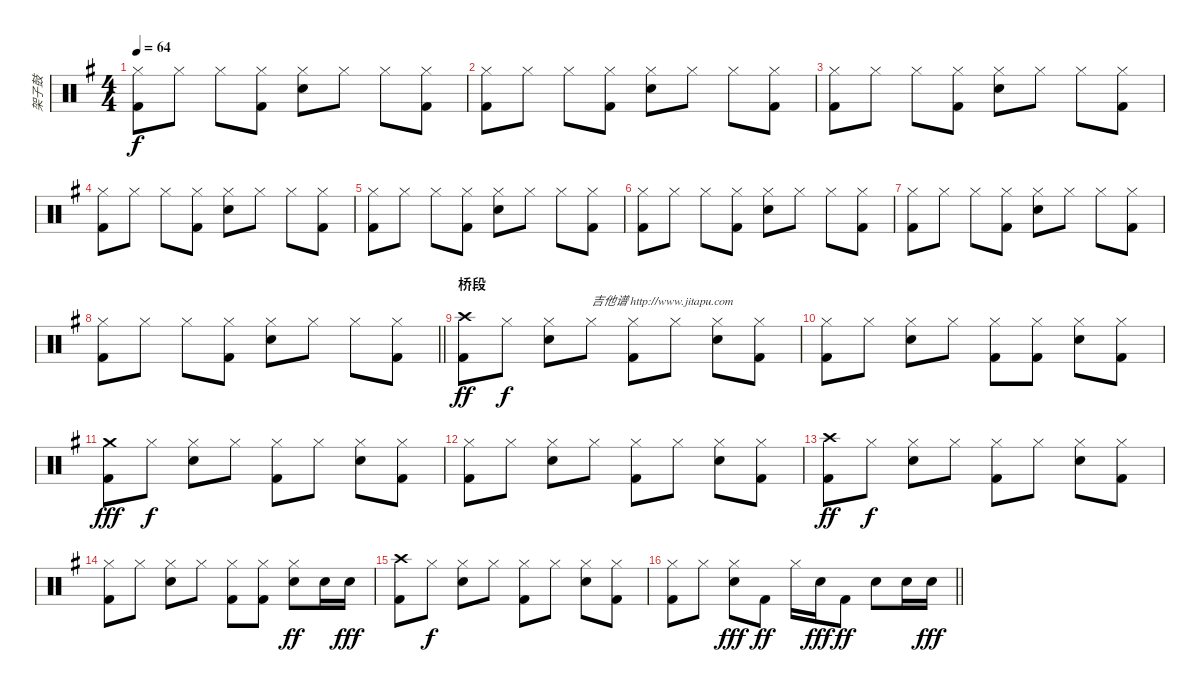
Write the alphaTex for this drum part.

\track ("架子鼓" "架子鼓") {instrument percussion}
\staff {score}
\articulation defaults
\ts (4 4)
\tempo 64
\clef neutral
\ks g
("Hi-Hat (closed)" "Kick (hit) 2").8{dy f} "Hi-Hat (closed)".8 "Hi-Hat (closed)".8 ("Hi-Hat (closed)" "Kick (hit) 2").8 ("Hi-Hat (closed)" "Electric Snare (hit)").8 "Hi-Hat (closed)".8 "Hi-Hat (closed)".8 ("Hi-Hat (closed)" "Kick (hit) 2").8 |
("Hi-Hat (closed)" "Kick (hit) 2").8 "Hi-Hat (closed)".8 "Hi-Hat (closed)".8 ("Hi-Hat (closed)" "Kick (hit) 2").8 ("Hi-Hat (closed)" "Electric Snare (hit)").8 "Hi-Hat (closed)".8 "Hi-Hat (closed)".8 ("Hi-Hat (closed)" "Kick (hit) 2").8 |
("Hi-Hat (closed)" "Kick (hit) 2").8 "Hi-Hat (closed)".8 "Hi-Hat (closed)".8 ("Hi-Hat (closed)" "Kick (hit) 2").8 ("Hi-Hat (closed)" "Electric Snare (hit)").8 "Hi-Hat (closed)".8 "Hi-Hat (closed)".8 ("Hi-Hat (closed)" "Kick (hit) 2").8 |
("Hi-Hat (closed)" "Kick (hit) 2").8 "Hi-Hat (closed)".8 "Hi-Hat (closed)".8 ("Hi-Hat (closed)" "Kick (hit) 2").8 ("Hi-Hat (closed)" "Electric Snare (hit)").8 "Hi-Hat (closed)".8 "Hi-Hat (closed)".8 ("Hi-Hat (closed)" "Kick (hit) 2").8 |
("Hi-Hat (closed)" "Kick (hit) 2").8 "Hi-Hat (closed)".8 "Hi-Hat (closed)".8 ("Hi-Hat (closed)" "Kick (hit) 2").8 ("Hi-Hat (closed)" "Electric Snare (hit)").8 "Hi-Hat (closed)".8 "Hi-Hat (closed)".8 ("Hi-Hat (closed)" "Kick (hit) 2").8 |
("Hi-Hat (closed)" "Kick (hit) 2").8 "Hi-Hat (closed)".8 "Hi-Hat (closed)".8 ("Hi-Hat (closed)" "Kick (hit) 2").8 ("Hi-Hat (closed)" "Electric Snare (hit)").8 "Hi-Hat (closed)".8 "Hi-Hat (closed)".8 ("Hi-Hat (closed)" "Kick (hit) 2").8 |
("Hi-Hat (closed)" "Kick (hit) 2").8 "Hi-Hat (closed)".8 "Hi-Hat (closed)".8 ("Hi-Hat (closed)" "Kick (hit) 2").8 ("Hi-Hat (closed)" "Electric Snare (hit)").8 "Hi-Hat (closed)".8 "Hi-Hat (closed)".8 ("Hi-Hat (closed)" "Kick (hit) 2").8 |
\barLineRight lightlight
("Hi-Hat (closed)" "Kick (hit) 2").8 "Hi-Hat (closed)".8 "Hi-Hat (closed)".8 ("Hi-Hat (closed)" "Kick (hit) 2").8 ("Hi-Hat (closed)" "Electric Snare (hit)").8 "Hi-Hat (closed)".8 "Hi-Hat (closed)".8 ("Hi-Hat (closed)" "Kick (hit) 2").8 |
\section ("" "桥段")
("Crash high (hit)" "Kick (hit) 2").8{dy ff} "Hi-Hat (closed)".8{dy f} ("Hi-Hat (closed)" "Electric Snare (hit)").8 "Hi-Hat (closed)".8{txt "吉他谱 http://www.jitapu.com"} ("Hi-Hat (closed)" "Kick (hit) 2").8 "Hi-Hat (closed)".8 ("Hi-Hat (closed)" "Electric Snare (hit)").8 ("Hi-Hat (closed)" "Kick (hit) 2").8 |
("Hi-Hat (closed)" "Kick (hit) 2").8 "Hi-Hat (closed)".8 ("Hi-Hat (closed)" "Electric Snare (hit)").8 "Hi-Hat (closed)".8 ("Hi-Hat (closed)" "Kick (hit) 2").8 ("Hi-Hat (closed)" "Kick (hit) 2").8 ("Hi-Hat (closed)" "Electric Snare (hit)").8 ("Hi-Hat (closed)" "Kick (hit) 2").8 |
("Crash medium (hit)" "Kick (hit) 2").8{dy fff} "Hi-Hat (closed)".8{dy f} ("Hi-Hat (closed)" "Electric Snare (hit)").8 "Hi-Hat (closed)".8 ("Hi-Hat (closed)" "Kick (hit) 2").8 "Hi-Hat (closed)".8 ("Hi-Hat (closed)" "Electric Snare (hit)").8 ("Hi-Hat (closed)" "Kick (hit) 2").8 |
("Hi-Hat (closed)" "Kick (hit) 2").8 "Hi-Hat (closed)".8 ("Hi-Hat (closed)" "Electric Snare (hit)").8 "Hi-Hat (closed)".8 ("Hi-Hat (closed)" "Kick (hit) 2").8 "Hi-Hat (closed)".8 ("Hi-Hat (closed)" "Electric Snare (hit)").8 ("Hi-Hat (closed)" "Kick (hit) 2").8 |
("Crash high (hit)" "Kick (hit) 2").8{dy ff} "Hi-Hat (closed)".8{dy f} ("Hi-Hat (closed)" "Electric Snare (hit)").8 "Hi-Hat (closed)".8 ("Hi-Hat (closed)" "Kick (hit) 2").8 "Hi-Hat (closed)".8 ("Hi-Hat (closed)" "Electric Snare (hit)").8 ("Hi-Hat (closed)" "Kick (hit) 2").8 |
("Hi-Hat (closed)" "Kick (hit) 2").8 "Hi-Hat (closed)".8 ("Hi-Hat (closed)" "Electric Snare (hit)").8 "Hi-Hat (closed)".8 ("Hi-Hat (closed)" "Kick (hit) 2").8 ("Hi-Hat (closed)" "Kick (hit) 2").8 ("Hi-Hat (closed)" "Electric Snare (hit)").8{dy ff} "Electric Snare (hit)".16 "Electric Snare (hit)".16{dy fff} |
("Crash high (hit)" "Kick (hit) 2").8 "Hi-Hat (closed)".8{dy f} ("Hi-Hat (closed)" "Electric Snare (hit)").8 "Hi-Hat (closed)".8 ("Hi-Hat (closed)" "Kick (hit) 2").8 "Hi-Hat (closed)".8 ("Hi-Hat (closed)" "Electric Snare (hit)").8 ("Hi-Hat (closed)" "Kick (hit) 2").8 |
\barLineRight lightlight
("Hi-Hat (closed)" "Kick (hit) 2").8 "Hi-Hat (closed)".8 ("Hi-Hat (closed)" "Electric Snare (hit)").8{dy fff} "Kick (hit) 2".8{dy ff} "Hi-Hat (closed)".16 "Electric Snare (hit)".16{dy fff} "Kick (hit) 2".8{dy ff} "Electric Snare (hit)".8 "Electric Snare (hit)".16 "Electric Snare (hit)".16{dy fff}
